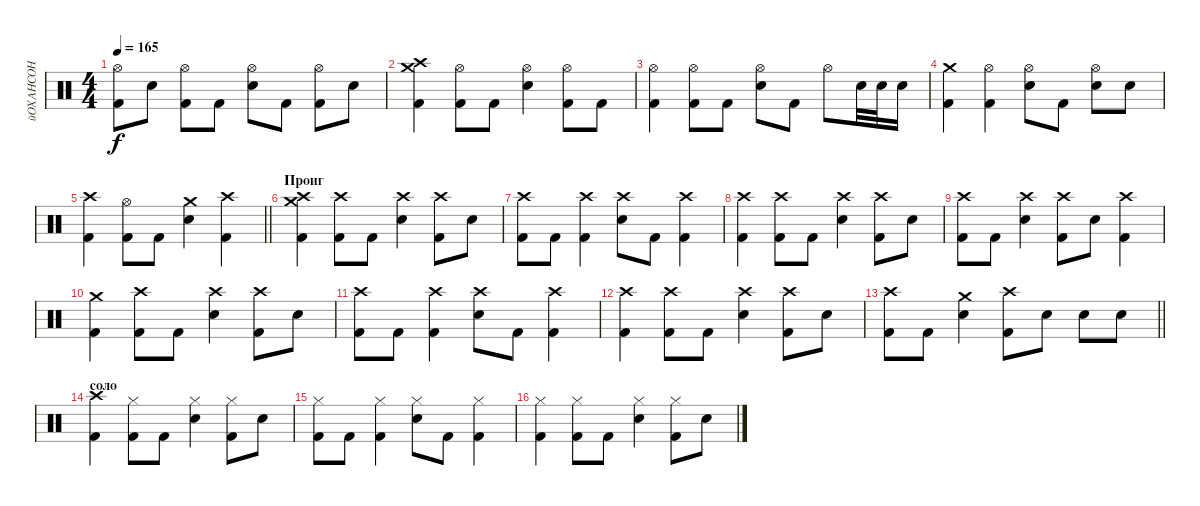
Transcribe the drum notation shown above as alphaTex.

\track ("йОХАНСОН" "йОХАНСОН") {instrument percussion}
\staff {score}
\articulation defaults
\ts (4 4)
\tempo 165
\clef neutral
\ks c
("Hi-Hat (open)" "Kick (hit) 2").8{dy f} "Snare (hit) 2".8 ("Hi-Hat (open)" "Kick (hit) 2").8 "Kick (hit) 2".8 ("Hi-Hat (open)" "Snare (hit) 2").8 "Kick (hit) 2".8 ("Hi-Hat (open)" "Kick (hit) 2").8 "Snare (hit) 2".8 |
("Crash high (hit)" "Crash medium (hit)" "Kick (hit) 2").4 ("Hi-Hat (open)" "Kick (hit) 2").8 "Kick (hit) 2".8 ("Hi-Hat (open)" "Snare (hit) 2").4 ("Hi-Hat (open)" "Kick (hit) 2").8 "Kick (hit) 2".8 |
("Hi-Hat (open)" "Kick (hit) 2").4 ("Hi-Hat (open)" "Kick (hit) 2").8 "Kick (hit) 2".8 ("Hi-Hat (open)" "Snare (hit) 2").8 "Kick (hit) 2".8 "Hi-Hat (open)".8 "Snare (hit) 2".32 "Snare (hit) 2".32 "Snare (hit) 2".16 |
("Crash medium (hit)" "Kick (hit) 2").4 ("Hi-Hat (open)" "Kick (hit) 2").4 ("Hi-Hat (open)" "Snare (hit) 2").8 "Kick (hit) 2".8 ("Hi-Hat (open)" "Snare (hit) 2").8 "Snare (hit) 2".8 |
\barLineRight lightlight
("Crash high (hit)" "Kick (hit) 2").4 ("Hi-Hat (open)" "Kick (hit) 2").8 "Kick (hit) 2".8 ("Crash medium (hit)" "Snare (hit) 2").4 ("Crash high (hit)" "Kick (hit) 2").4 |
\section ("" "Проиг")
("Crash medium (hit)" "Crash high (hit)" "Kick (hit) 2").4 ("Crash high (hit)" "Kick (hit) 2").8 "Kick (hit) 2".8 ("Crash high (hit)" "Snare (hit) 2").4 ("Crash high (hit)" "Kick (hit) 2").8 "Snare (hit) 2".8 |
("Crash high (hit)" "Kick (hit) 2").8 "Kick (hit) 2".8 ("Crash high (hit)" "Kick (hit) 2").4 ("Crash high (hit)" "Snare (hit) 2").8 "Kick (hit) 2".8 ("Crash high (hit)" "Kick (hit) 2").4 |
("Crash high (hit)" "Kick (hit) 2").4 ("Crash high (hit)" "Kick (hit) 2").8 "Kick (hit) 2".8 ("Crash high (hit)" "Snare (hit) 2").4 ("Crash high (hit)" "Kick (hit) 2").8 "Snare (hit) 2".8 |
("Crash high (hit)" "Kick (hit) 2").8 "Kick (hit) 2".8 ("Crash high (hit)" "Snare (hit) 2").4 ("Crash high (hit)" "Kick (hit) 2").8 "Snare (hit) 2".8 ("Crash high (hit)" "Kick (hit) 2").4 |
("Crash medium (hit)" "Kick (hit) 2").4 ("Crash high (hit)" "Kick (hit) 2").8 "Kick (hit) 2".8 ("Crash high (hit)" "Snare (hit) 2").4 ("Crash high (hit)" "Kick (hit) 2").8 "Snare (hit) 2".8 |
("Crash high (hit)" "Kick (hit) 2").8 "Kick (hit) 2".8 ("Crash high (hit)" "Kick (hit) 2").4 ("Crash high (hit)" "Snare (hit) 2").8 "Kick (hit) 2".8 ("Crash high (hit)" "Kick (hit) 2").4 |
("Crash high (hit)" "Kick (hit) 2").4 ("Crash high (hit)" "Kick (hit) 2").8 "Kick (hit) 2".8 ("Crash high (hit)" "Snare (hit) 2").4 ("Crash high (hit)" "Kick (hit) 2").8 "Snare (hit) 2".8 |
\barLineRight lightlight
("Crash high (hit)" "Kick (hit) 2").8 "Kick (hit) 2".8 ("Crash medium (hit)" "Snare (hit) 2").4 ("Crash high (hit)" "Kick (hit) 2").8 "Snare (hit) 2".8 "Snare (hit) 2".8 "Snare (hit) 2".8 |
\section ("" "соло")
("Crash high (hit)" "Kick (hit) 2").4 ("Hi-Hat (closed)" "Kick (hit) 2").8 "Kick (hit) 2".8 ("Hi-Hat (closed)" "Snare (hit) 2").4 ("Hi-Hat (closed)" "Kick (hit) 2").8 "Snare (hit) 2".8 |
("Hi-Hat (closed)" "Kick (hit) 2").8 "Kick (hit) 2".8 ("Hi-Hat (closed)" "Kick (hit) 2").4 ("Hi-Hat (closed)" "Snare (hit) 2").8 "Kick (hit) 2".8 ("Hi-Hat (closed)" "Kick (hit) 2").4 |
("Hi-Hat (closed)" "Kick (hit) 2").4 ("Hi-Hat (closed)" "Kick (hit) 2").8 "Kick (hit) 2".8 ("Hi-Hat (closed)" "Snare (hit) 2").4 ("Hi-Hat (closed)" "Kick (hit) 2").8 "Snare (hit) 2".8
